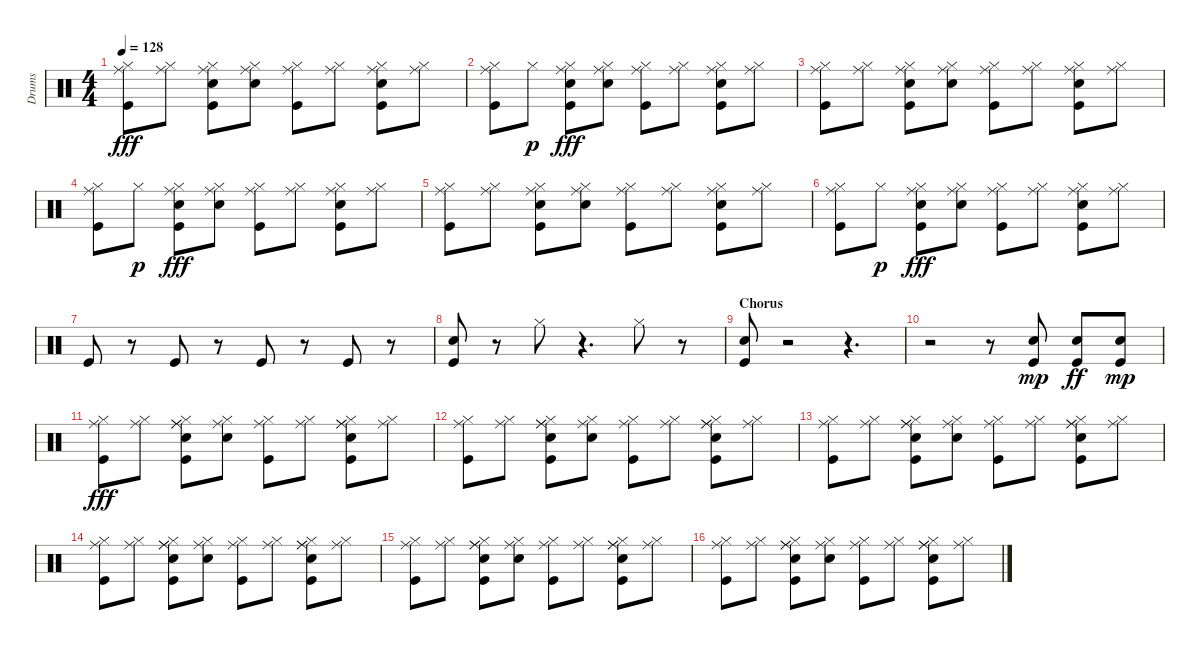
\track ("Drums               " "Drums     ") {instrument percussion}
\staff {score}
\articulation defaults
\ts (4 4)
\tempo 128
\clef neutral
\ks c
("Hi-Hat (closed)" "Kick (hit)" "Ride (middle)").8{dy fff} ("Hi-Hat (closed)" "Ride (middle)").8 ("Hi-Hat (closed)" "Kick (hit)" "Snare (hit) 2" "Ride (middle)").8 ("Hi-Hat (closed)" "Snare (hit) 2" "Ride (middle)").8 ("Hi-Hat (closed)" "Kick (hit)" "Ride (middle)").8 ("Hi-Hat (closed)" "Ride (middle)").8 ("Hi-Hat (closed)" "Kick (hit)" "Snare (hit) 2" "Ride (middle)").8 ("Hi-Hat (closed)" "Ride (middle)").8 |
("Hi-Hat (closed)" "Kick (hit)" "Ride (middle)").8 "Hi-Hat (closed)".8{dy p} ("Hi-Hat (closed)" "Kick (hit)" "Snare (hit) 2" "Ride (middle)").8{dy fff} ("Hi-Hat (closed)" "Snare (hit) 2" "Ride (middle)").8 ("Hi-Hat (closed)" "Kick (hit)" "Ride (middle)").8 ("Hi-Hat (closed)" "Ride (middle)").8 ("Hi-Hat (closed)" "Kick (hit)" "Snare (hit) 2" "Ride (middle)").8 ("Hi-Hat (closed)" "Ride (middle)").8 |
("Hi-Hat (closed)" "Kick (hit)" "Ride (middle)").8 ("Hi-Hat (closed)" "Ride (middle)").8 ("Hi-Hat (closed)" "Kick (hit)" "Snare (hit) 2" "Ride (middle)").8 ("Hi-Hat (closed)" "Snare (hit) 2" "Ride (middle)").8 ("Hi-Hat (closed)" "Kick (hit)" "Ride (middle)").8 ("Hi-Hat (closed)" "Ride (middle)").8 ("Hi-Hat (closed)" "Kick (hit)" "Snare (hit) 2" "Ride (middle)").8 ("Hi-Hat (closed)" "Ride (middle)").8 |
("Hi-Hat (closed)" "Kick (hit)" "Ride (middle)").8 "Hi-Hat (closed)".8{dy p} ("Hi-Hat (closed)" "Kick (hit)" "Snare (hit) 2" "Ride (middle)").8{dy fff} ("Hi-Hat (closed)" "Snare (hit) 2" "Ride (middle)").8 ("Hi-Hat (closed)" "Kick (hit)" "Ride (middle)").8 ("Hi-Hat (closed)" "Ride (middle)").8 ("Hi-Hat (closed)" "Kick (hit)" "Snare (hit) 2" "Ride (middle)").8 ("Hi-Hat (closed)" "Ride (middle)").8 |
("Hi-Hat (closed)" "Kick (hit)" "Ride (middle)").8 ("Hi-Hat (closed)" "Ride (middle)").8 ("Hi-Hat (closed)" "Kick (hit)" "Snare (hit) 2" "Ride (middle)").8 ("Hi-Hat (closed)" "Snare (hit) 2" "Ride (middle)").8 ("Hi-Hat (closed)" "Kick (hit)" "Ride (middle)").8 ("Hi-Hat (closed)" "Ride (middle)").8 ("Hi-Hat (closed)" "Kick (hit)" "Snare (hit) 2" "Ride (middle)").8 ("Hi-Hat (closed)" "Ride (middle)").8 |
("Hi-Hat (closed)" "Kick (hit)" "Ride (middle)").8 "Hi-Hat (closed)".8{dy p} ("Hi-Hat (closed)" "Kick (hit)" "Snare (hit) 2" "Ride (middle)").8{dy fff} ("Hi-Hat (closed)" "Snare (hit) 2" "Ride (middle)").8 ("Hi-Hat (closed)" "Kick (hit)" "Ride (middle)").8 ("Hi-Hat (closed)" "Ride (middle)").8 ("Hi-Hat (closed)" "Kick (hit)" "Snare (hit) 2" "Ride (middle)").8 ("Hi-Hat (closed)" "Ride (middle)").8 |
"Kick (hit)".8 r.8 "Kick (hit)".8 r.8 "Kick (hit)".8 r.8 "Kick (hit)".8 r.8 |
("Electric Snare (hit)" "Kick (hit)").8 r.8 "Hi-Hat (closed)".8 r.4{d} "Hi-Hat (closed)".8 r.8 |
\section ("" "Chorus")
("Electric Snare (hit)" "Kick (hit)").8 r.2 r.4{d} |
r.2 r.8 ("Electric Snare (hit)" "Kick (hit)").8{dy mp} ("Electric Snare (hit)" "Kick (hit)").8{dy ff} ("Electric Snare (hit)" "Kick (hit)").8{dy mp} |
("Ride (middle)" "Hi-Hat (closed)" "Kick (hit)").8{dy fff} ("Ride (middle)" "Hi-Hat (closed)").8 ("Ride (middle)" "Hi-Hat (closed)" "Ride (middle)" "Electric Snare (hit)" "Kick (hit)").8 ("Ride (middle)" "Hi-Hat (closed)" "Electric Snare (hit)").8 ("Ride (middle)" "Hi-Hat (closed)" "Kick (hit)").8 ("Ride (middle)" "Hi-Hat (closed)").8 ("Ride (middle)" "Hi-Hat (closed)" "Ride (middle)" "Electric Snare (hit)" "Kick (hit)").8 ("Ride (middle)" "Hi-Hat (closed)").8 |
("Ride (middle)" "Hi-Hat (closed)" "Kick (hit)").8 ("Ride (middle)" "Hi-Hat (closed)").8 ("Ride (middle)" "Hi-Hat (closed)" "Ride (middle)" "Electric Snare (hit)" "Kick (hit)").8 ("Ride (middle)" "Hi-Hat (closed)" "Electric Snare (hit)").8 ("Ride (middle)" "Hi-Hat (closed)" "Kick (hit)").8 ("Ride (middle)" "Hi-Hat (closed)").8 ("Ride (middle)" "Hi-Hat (closed)" "Ride (middle)" "Electric Snare (hit)" "Kick (hit)").8 ("Ride (middle)" "Hi-Hat (closed)").8 |
("Ride (middle)" "Hi-Hat (closed)" "Kick (hit)").8 ("Ride (middle)" "Hi-Hat (closed)").8 ("Ride (middle)" "Hi-Hat (closed)" "Ride (middle)" "Electric Snare (hit)" "Kick (hit)").8 ("Ride (middle)" "Hi-Hat (closed)" "Electric Snare (hit)").8 ("Ride (middle)" "Hi-Hat (closed)" "Kick (hit)").8 ("Ride (middle)" "Hi-Hat (closed)").8 ("Ride (middle)" "Hi-Hat (closed)" "Ride (middle)" "Electric Snare (hit)" "Kick (hit)").8 ("Ride (middle)" "Hi-Hat (closed)").8 |
("Ride (middle)" "Hi-Hat (closed)" "Kick (hit)").8 ("Ride (middle)" "Hi-Hat (closed)").8 ("Ride (middle)" "Hi-Hat (closed)" "Ride (middle)" "Electric Snare (hit)" "Kick (hit)").8 ("Ride (middle)" "Hi-Hat (closed)" "Electric Snare (hit)").8 ("Ride (middle)" "Hi-Hat (closed)" "Kick (hit)").8 ("Ride (middle)" "Hi-Hat (closed)").8 ("Ride (middle)" "Hi-Hat (closed)" "Ride (middle)" "Electric Snare (hit)" "Kick (hit)").8 ("Ride (middle)" "Hi-Hat (closed)").8 |
("Ride (middle)" "Hi-Hat (closed)" "Kick (hit)").8 ("Ride (middle)" "Hi-Hat (closed)").8 ("Ride (middle)" "Hi-Hat (closed)" "Ride (middle)" "Electric Snare (hit)" "Kick (hit)").8 ("Ride (middle)" "Hi-Hat (closed)" "Electric Snare (hit)").8 ("Ride (middle)" "Hi-Hat (closed)" "Kick (hit)").8 ("Ride (middle)" "Hi-Hat (closed)").8 ("Ride (middle)" "Hi-Hat (closed)" "Ride (middle)" "Electric Snare (hit)" "Kick (hit)").8 ("Ride (middle)" "Hi-Hat (closed)").8 |
("Ride (middle)" "Hi-Hat (closed)" "Kick (hit)").8 ("Ride (middle)" "Hi-Hat (closed)").8 ("Ride (middle)" "Hi-Hat (closed)" "Ride (middle)" "Electric Snare (hit)" "Kick (hit)").8 ("Ride (middle)" "Hi-Hat (closed)" "Electric Snare (hit)").8 ("Ride (middle)" "Hi-Hat (closed)" "Kick (hit)").8 ("Ride (middle)" "Hi-Hat (closed)").8 ("Ride (middle)" "Hi-Hat (closed)" "Ride (middle)" "Electric Snare (hit)" "Kick (hit)").8 ("Ride (middle)" "Hi-Hat (closed)").8
